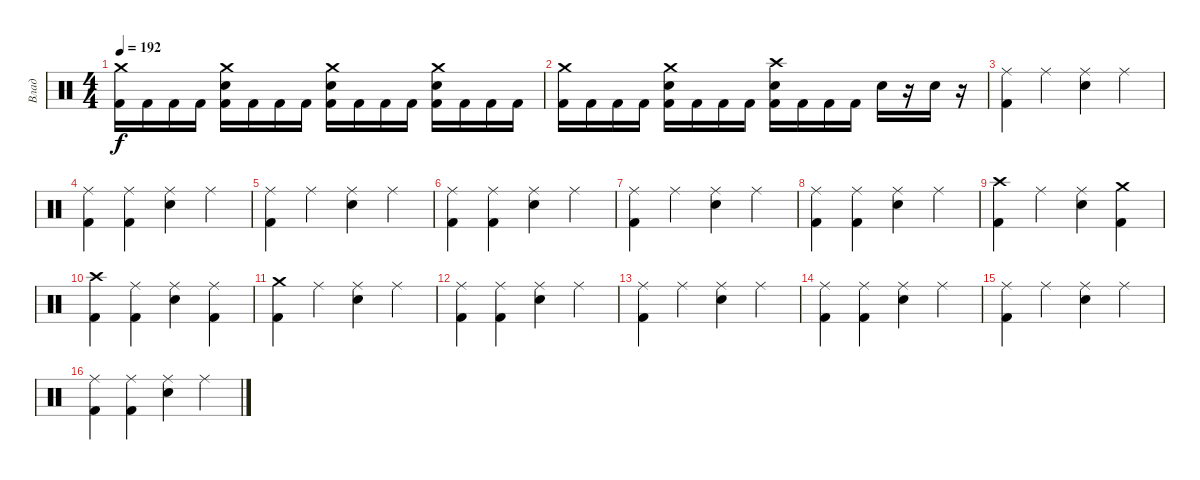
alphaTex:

\track ("Влад" "Влад") {instrument percussion}
\staff {score}
\articulation defaults
\ts (4 4)
\tempo 192
\clef neutral
\ks c
("Crash medium (hit)" "Kick (hit) 2").16{dy f} "Kick (hit) 2".16 "Kick (hit) 2".16 "Kick (hit) 2".16 ("Crash medium (hit)" "Kick (hit) 2" "Snare (hit) 2").16 "Kick (hit) 2".16 "Kick (hit) 2".16 "Kick (hit) 2".16 ("Crash medium (hit)" "Kick (hit) 2" "Snare (hit) 2").16 "Kick (hit) 2".16 "Kick (hit) 2".16 "Kick (hit) 2".16 ("Crash medium (hit)" "Kick (hit) 2" "Snare (hit) 2").16 "Kick (hit) 2".16 "Kick (hit) 2".16 "Kick (hit) 2".16 |
("Crash medium (hit)" "Kick (hit) 2").16 "Kick (hit) 2".16 "Kick (hit) 2".16 "Kick (hit) 2".16 ("Crash medium (hit)" "Kick (hit) 2" "Snare (hit) 2").16 "Kick (hit) 2".16 "Kick (hit) 2".16 "Kick (hit) 2".16 ("Crash high (hit)" "Kick (hit) 2" "Snare (hit) 2").16 "Kick (hit) 2".16 "Kick (hit) 2".16 "Kick (hit) 2".16 "Snare (hit) 2".16 r.16 "Snare (hit) 2".16 r.16 |
("Ride (middle)" "Kick (hit) 2").4 "Ride (middle)".4 ("Ride (middle)" "Snare (hit) 2").4 "Ride (middle)".4 |
("Ride (middle)" "Kick (hit) 2").4 ("Ride (middle)" "Kick (hit) 2").4 ("Ride (middle)" "Snare (hit) 2").4 "Ride (middle)".4 |
("Ride (middle)" "Kick (hit) 2").4 "Ride (middle)".4 ("Ride (middle)" "Snare (hit) 2").4 "Ride (middle)".4 |
("Ride (middle)" "Kick (hit) 2").4 ("Ride (middle)" "Kick (hit) 2").4 ("Ride (middle)" "Snare (hit) 2").4 "Ride (middle)".4 |
("Ride (middle)" "Kick (hit) 2").4 "Ride (middle)".4 ("Ride (middle)" "Snare (hit) 2").4 "Ride (middle)".4 |
("Ride (middle)" "Kick (hit) 2").4 ("Ride (middle)" "Kick (hit) 2").4 ("Ride (middle)" "Snare (hit) 2").4 "Ride (middle)"{tr (51 16)}.4 |
("Crash high (hit)" "Kick (hit) 2").4 "Ride (middle)".4 ("Ride (middle)" "Snare (hit) 2").4 ("Crash medium (hit)" "Kick (hit) 2").4 |
("Crash high (hit)" "Kick (hit) 2").4 ("Ride (middle)" "Kick (hit) 2").4 ("Ride (middle)" "Snare (hit) 2").4 ("Ride (middle)" "Kick (hit) 2"{tr (36 16)}).4 |
("Crash medium (hit)" "Kick (hit) 2").4 "Ride (middle)".4 ("Ride (middle)" "Snare (hit) 2").4 "Ride (middle)".4 |
("Ride (middle)" "Kick (hit) 2").4 ("Ride (middle)" "Kick (hit) 2").4 ("Ride (middle)" "Snare (hit) 2").4 "Ride (middle)".4 |
("Ride (middle)" "Kick (hit) 2").4 "Ride (middle)".4 ("Ride (middle)" "Snare (hit) 2").4 "Ride (middle)".4 |
("Ride (middle)" "Kick (hit) 2").4 ("Ride (middle)" "Kick (hit) 2").4 ("Ride (middle)" "Snare (hit) 2").4 "Ride (middle)".4 |
("Ride (middle)" "Kick (hit) 2").4 "Ride (middle)".4 ("Ride (middle)" "Snare (hit) 2").4 "Ride (middle)".4 |
("Ride (middle)" "Kick (hit) 2").4 ("Ride (middle)" "Kick (hit) 2").4 ("Ride (middle)" "Snare (hit) 2").4 "Ride (middle)"{tr (51 16)}.4
